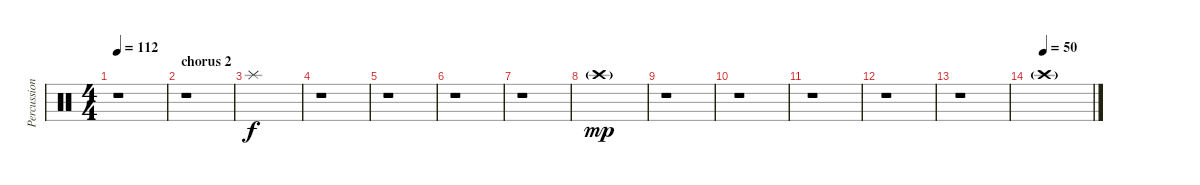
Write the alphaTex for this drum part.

\track ("Percussions (Mason)" "Percussion") {instrument percussion}
\staff {score}
\articulation defaults
\ts (4 4)
\tempo 112
\clef neutral
\ks c
r.1{dy mp} |
\section ("" "chorus 2")
r.1 |
"Splash (hit)".1{dy f} |
r.1 |
r.1 |
r.1 |
r.1 |
"Crash high (hit)"{g}.1{dy mp} |
r.1 |
r.1 |
r.1 |
r.1 |
r.1 |
\tempo (50)
"Crash high (hit)"{g}.1
